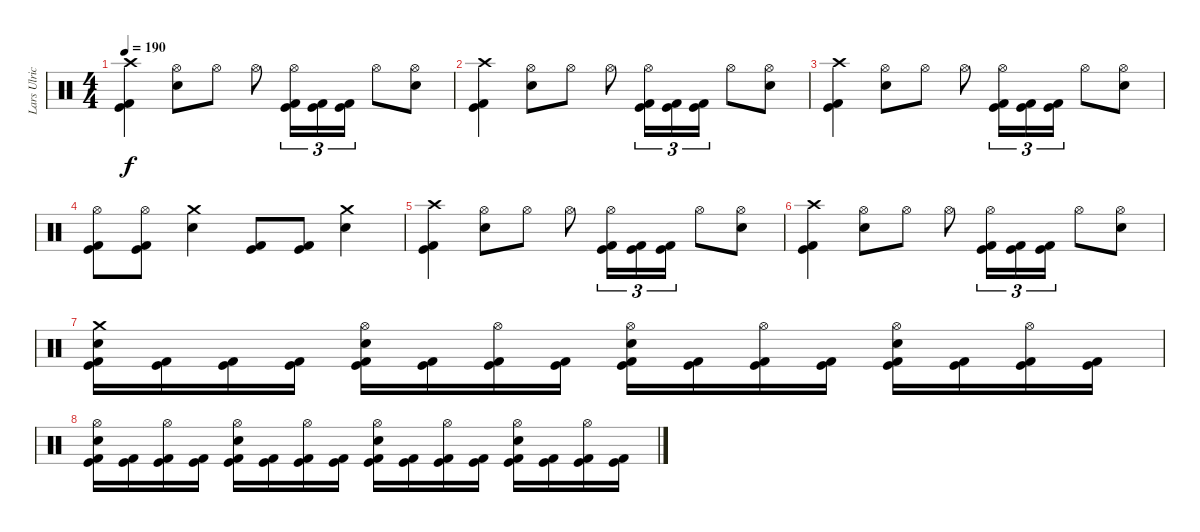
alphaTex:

\track ("Lars Ulrich" "Lars Ulric") {instrument percussion}
\staff {score}
\articulation defaults
\ts (4 4)
\tempo 190
\clef neutral
\ks c
("Crash high (hit)" "Kick (hit) 2" "Kick (hit)").4{dy f} ("Hi-Hat (open)" "Electric Snare (hit)").8 "Hi-Hat (open)".8 "Hi-Hat (open)".8 ("Hi-Hat (open)" "Kick (hit) 2" "Kick (hit)").16{tu (3 2)} ("Kick (hit) 2" "Kick (hit)").16{tu (3 2)} ("Kick (hit) 2" "Kick (hit)").16{tu (3 2)} "Hi-Hat (open)".8 ("Hi-Hat (open)" "Electric Snare (hit)").8 |
("Crash high (hit)" "Kick (hit) 2" "Kick (hit)").4 ("Hi-Hat (open)" "Electric Snare (hit)").8 "Hi-Hat (open)".8 "Hi-Hat (open)".8 ("Hi-Hat (open)" "Kick (hit) 2" "Kick (hit)").16{tu (3 2)} ("Kick (hit) 2" "Kick (hit)").16{tu (3 2)} ("Kick (hit) 2" "Kick (hit)").16{tu (3 2)} "Hi-Hat (open)".8 ("Hi-Hat (open)" "Electric Snare (hit)").8 |
("Crash high (hit)" "Kick (hit) 2" "Kick (hit)").4 ("Hi-Hat (open)" "Electric Snare (hit)").8 "Hi-Hat (open)".8 "Hi-Hat (open)".8 ("Hi-Hat (open)" "Kick (hit) 2" "Kick (hit)").16{tu (3 2)} ("Kick (hit) 2" "Kick (hit)").16{tu (3 2)} ("Kick (hit) 2" "Kick (hit)").16{tu (3 2)} "Hi-Hat (open)".8 ("Hi-Hat (open)" "Electric Snare (hit)").8 |
("Hi-Hat (open)" "Kick (hit) 2" "Kick (hit)").8 ("Hi-Hat (open)" "Kick (hit) 2" "Kick (hit)").8 ("Crash medium (hit)" "Electric Snare (hit)").4 ("Kick (hit) 2" "Kick (hit)").8 ("Kick (hit) 2" "Kick (hit)").8 ("Crash medium (hit)" "Electric Snare (hit)").4 |
("Crash high (hit)" "Kick (hit) 2" "Kick (hit)").4 ("Hi-Hat (open)" "Electric Snare (hit)").8 "Hi-Hat (open)".8 "Hi-Hat (open)".8 ("Hi-Hat (open)" "Kick (hit) 2" "Kick (hit)").16{tu (3 2)} ("Kick (hit) 2" "Kick (hit)").16{tu (3 2)} ("Kick (hit) 2" "Kick (hit)").16{tu (3 2)} "Hi-Hat (open)".8 ("Hi-Hat (open)" "Electric Snare (hit)").8 |
("Crash high (hit)" "Kick (hit) 2" "Kick (hit)").4 ("Hi-Hat (open)" "Electric Snare (hit)").8 "Hi-Hat (open)".8 "Hi-Hat (open)".8 ("Hi-Hat (open)" "Kick (hit) 2" "Kick (hit)").16{tu (3 2)} ("Kick (hit) 2" "Kick (hit)").16{tu (3 2)} ("Kick (hit) 2" "Kick (hit)").16{tu (3 2)} "Hi-Hat (open)".8 ("Hi-Hat (open)" "Electric Snare (hit)").8 |
("Crash medium (hit)" "Electric Snare (hit)" "Kick (hit) 2" "Kick (hit)").16 ("Kick (hit) 2" "Kick (hit)").16 ("Kick (hit) 2" "Kick (hit)").16 ("Kick (hit) 2" "Kick (hit)").16 ("Hi-Hat (open)" "Electric Snare (hit)" "Kick (hit) 2" "Kick (hit)").16 ("Kick (hit) 2" "Kick (hit)").16 ("Hi-Hat (open)" "Kick (hit) 2" "Kick (hit)").16 ("Kick (hit) 2" "Kick (hit)").16 ("Hi-Hat (open)" "Electric Snare (hit)" "Kick (hit) 2" "Kick (hit)").16 ("Kick (hit) 2" "Kick (hit)").16 ("Hi-Hat (open)" "Kick (hit) 2" "Kick (hit)").16 ("Kick (hit) 2" "Kick (hit)").16 ("Hi-Hat (open)" "Electric Snare (hit)" "Kick (hit) 2" "Kick (hit)").16 ("Kick (hit) 2" "Kick (hit)").16 ("Hi-Hat (open)" "Kick (hit) 2" "Kick (hit)").16 ("Kick (hit) 2" "Kick (hit)").16 |
("Hi-Hat (open)" "Electric Snare (hit)" "Kick (hit) 2" "Kick (hit)").16 ("Kick (hit) 2" "Kick (hit)").16 ("Hi-Hat (open)" "Kick (hit) 2" "Kick (hit)").16 ("Kick (hit) 2" "Kick (hit)").16 ("Hi-Hat (open)" "Electric Snare (hit)" "Kick (hit) 2" "Kick (hit)").16 ("Kick (hit) 2" "Kick (hit)").16 ("Hi-Hat (open)" "Kick (hit) 2" "Kick (hit)").16 ("Kick (hit) 2" "Kick (hit)").16 ("Hi-Hat (open)" "Electric Snare (hit)" "Kick (hit) 2" "Kick (hit)").16 ("Kick (hit) 2" "Kick (hit)").16 ("Hi-Hat (open)" "Kick (hit) 2" "Kick (hit)").16 ("Kick (hit) 2" "Kick (hit)").16 ("Hi-Hat (open)" "Electric Snare (hit)" "Kick (hit) 2" "Kick (hit)").16 ("Kick (hit) 2" "Kick (hit)").16 ("Hi-Hat (open)" "Kick (hit) 2" "Kick (hit)").16 ("Kick (hit) 2" "Kick (hit)").16
